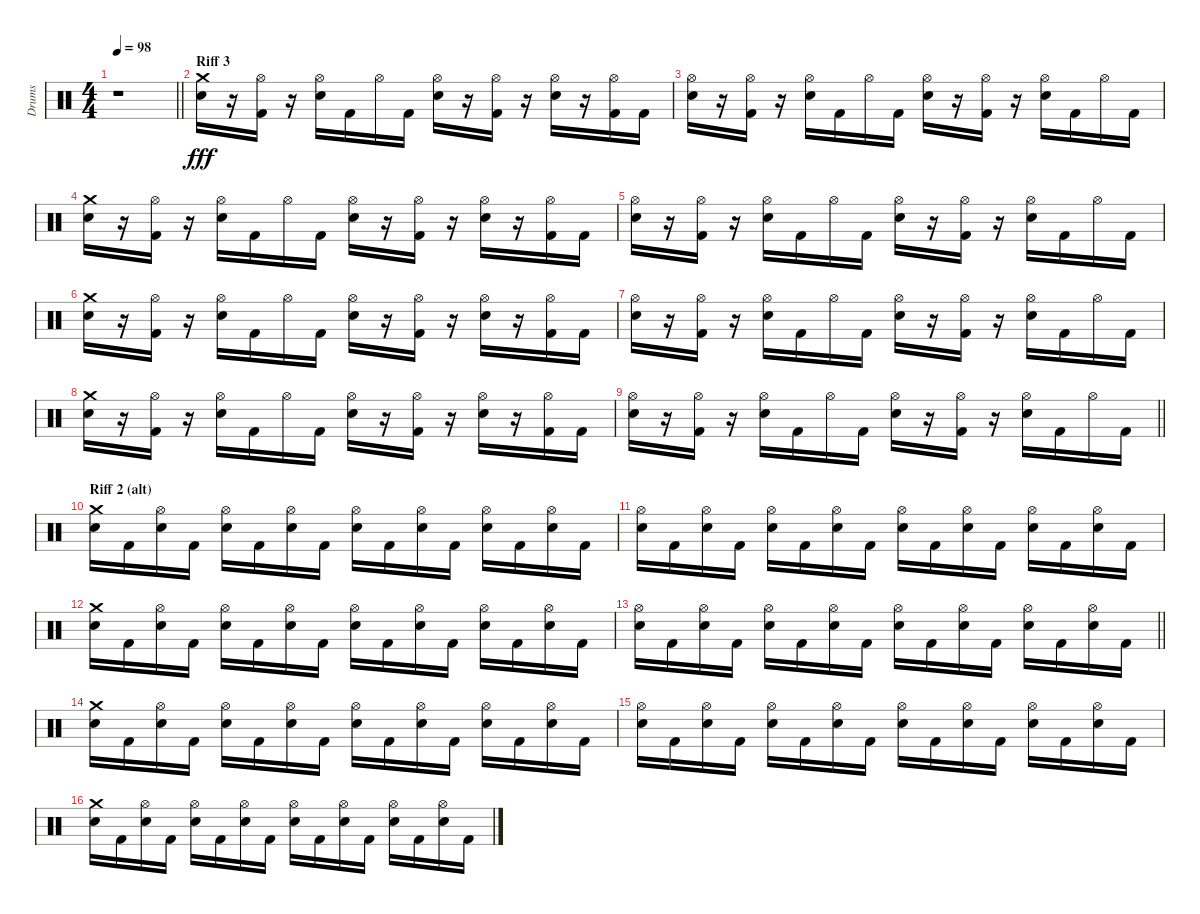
\track ("Drums" "Drums") {instrument percussion}
\staff {score}
\articulation defaults
\ts (4 4)
\tempo 98
\clef neutral
\barLineRight lightlight
\ks c
r.1{dy fff} |
\section ("" "Riff 3")
("Snare (hit) 2" "Crash medium (hit)").16 r.16 ("Kick (hit) 2" "Hi-Hat (open)").16 r.16 ("Snare (hit) 2" "Hi-Hat (open)").16 "Kick (hit) 2".16 "Hi-Hat (open)".16 "Kick (hit) 2".16 ("Snare (hit) 2" "Hi-Hat (open)").16 r.16 ("Kick (hit) 2" "Hi-Hat (open)").16 r.16 ("Snare (hit) 2" "Hi-Hat (open)").16 r.16 ("Kick (hit) 2" "Hi-Hat (open)").16 "Kick (hit) 2".16 |
("Snare (hit) 2" "Hi-Hat (open)").16 r.16 ("Kick (hit) 2" "Hi-Hat (open)").16 r.16 ("Snare (hit) 2" "Hi-Hat (open)").16 "Kick (hit) 2".16 "Hi-Hat (open)".16 "Kick (hit) 2".16 ("Snare (hit) 2" "Hi-Hat (open)").16 r.16 ("Kick (hit) 2" "Hi-Hat (open)").16 r.16 ("Snare (hit) 2" "Hi-Hat (open)").16 "Kick (hit) 2".16 "Hi-Hat (open)".16 "Kick (hit) 2".16 |
("Snare (hit) 2" "Crash medium (hit)").16 r.16 ("Kick (hit) 2" "Hi-Hat (open)").16 r.16 ("Snare (hit) 2" "Hi-Hat (open)").16 "Kick (hit) 2".16 "Hi-Hat (open)".16 "Kick (hit) 2".16 ("Snare (hit) 2" "Hi-Hat (open)").16 r.16 ("Kick (hit) 2" "Hi-Hat (open)").16 r.16 ("Snare (hit) 2" "Hi-Hat (open)").16 r.16 ("Kick (hit) 2" "Hi-Hat (open)").16 "Kick (hit) 2".16 |
("Snare (hit) 2" "Hi-Hat (open)").16 r.16 ("Kick (hit) 2" "Hi-Hat (open)").16 r.16 ("Snare (hit) 2" "Hi-Hat (open)").16 "Kick (hit) 2".16 "Hi-Hat (open)".16 "Kick (hit) 2".16 ("Snare (hit) 2" "Hi-Hat (open)").16 r.16 ("Kick (hit) 2" "Hi-Hat (open)").16 r.16 ("Snare (hit) 2" "Hi-Hat (open)").16 "Kick (hit) 2".16 "Hi-Hat (open)".16 "Kick (hit) 2".16 |
("Snare (hit) 2" "Crash medium (hit)").16 r.16 ("Kick (hit) 2" "Hi-Hat (open)").16 r.16 ("Snare (hit) 2" "Hi-Hat (open)").16 "Kick (hit) 2".16 "Hi-Hat (open)".16 "Kick (hit) 2".16 ("Snare (hit) 2" "Hi-Hat (open)").16 r.16 ("Kick (hit) 2" "Hi-Hat (open)").16 r.16 ("Snare (hit) 2" "Hi-Hat (open)").16 r.16 ("Kick (hit) 2" "Hi-Hat (open)").16 "Kick (hit) 2".16 |
("Snare (hit) 2" "Hi-Hat (open)").16 r.16 ("Kick (hit) 2" "Hi-Hat (open)").16 r.16 ("Snare (hit) 2" "Hi-Hat (open)").16 "Kick (hit) 2".16 "Hi-Hat (open)".16 "Kick (hit) 2".16 ("Snare (hit) 2" "Hi-Hat (open)").16 r.16 ("Kick (hit) 2" "Hi-Hat (open)").16 r.16 ("Snare (hit) 2" "Hi-Hat (open)").16 "Kick (hit) 2".16 "Hi-Hat (open)".16 "Kick (hit) 2".16 |
("Snare (hit) 2" "Crash medium (hit)").16 r.16 ("Kick (hit) 2" "Hi-Hat (open)").16 r.16 ("Snare (hit) 2" "Hi-Hat (open)").16 "Kick (hit) 2".16 "Hi-Hat (open)".16 "Kick (hit) 2".16 ("Snare (hit) 2" "Hi-Hat (open)").16 r.16 ("Kick (hit) 2" "Hi-Hat (open)").16 r.16 ("Snare (hit) 2" "Hi-Hat (open)").16 r.16 ("Kick (hit) 2" "Hi-Hat (open)").16 "Kick (hit) 2".16 |
\barLineRight lightlight
("Snare (hit) 2" "Hi-Hat (open)").16 r.16 ("Kick (hit) 2" "Hi-Hat (open)").16 r.16 ("Snare (hit) 2" "Hi-Hat (open)").16 "Kick (hit) 2".16 "Hi-Hat (open)".16 "Kick (hit) 2".16 ("Snare (hit) 2" "Hi-Hat (open)").16 r.16 ("Kick (hit) 2" "Hi-Hat (open)").16 r.16 ("Snare (hit) 2" "Hi-Hat (open)").16 "Kick (hit) 2".16 "Hi-Hat (open)".16 "Kick (hit) 2".16 |
\section ("" "Riff 2 (alt)")
("Snare (hit) 2" "Crash medium (hit)").16 "Kick (hit) 2".16 ("Snare (hit) 2" "Hi-Hat (open)").16 "Kick (hit) 2".16 ("Snare (hit) 2" "Hi-Hat (open)").16 "Kick (hit) 2".16 ("Snare (hit) 2" "Hi-Hat (open)").16 "Kick (hit) 2".16 ("Snare (hit) 2" "Hi-Hat (open)").16 "Kick (hit) 2".16 ("Snare (hit) 2" "Hi-Hat (open)").16 "Kick (hit) 2".16 ("Snare (hit) 2" "Hi-Hat (open)").16 "Kick (hit) 2".16 ("Snare (hit) 2" "Hi-Hat (open)").16 "Kick (hit) 2".16 |
("Snare (hit) 2" "Hi-Hat (open)").16 "Kick (hit) 2".16 ("Snare (hit) 2" "Hi-Hat (open)").16 "Kick (hit) 2".16 ("Snare (hit) 2" "Hi-Hat (open)").16 "Kick (hit) 2".16 ("Snare (hit) 2" "Hi-Hat (open)").16 "Kick (hit) 2".16 ("Snare (hit) 2" "Hi-Hat (open)").16 "Kick (hit) 2".16 ("Snare (hit) 2" "Hi-Hat (open)").16 "Kick (hit) 2".16 ("Snare (hit) 2" "Hi-Hat (open)").16 "Kick (hit) 2".16 ("Snare (hit) 2" "Hi-Hat (open)").16 "Kick (hit) 2".16 |
("Snare (hit) 2" "Crash medium (hit)").16 "Kick (hit) 2".16 ("Snare (hit) 2" "Hi-Hat (open)").16 "Kick (hit) 2".16 ("Snare (hit) 2" "Hi-Hat (open)").16 "Kick (hit) 2".16 ("Snare (hit) 2" "Hi-Hat (open)").16 "Kick (hit) 2".16 ("Snare (hit) 2" "Hi-Hat (open)").16 "Kick (hit) 2".16 ("Snare (hit) 2" "Hi-Hat (open)").16 "Kick (hit) 2".16 ("Snare (hit) 2" "Hi-Hat (open)").16 "Kick (hit) 2".16 ("Snare (hit) 2" "Hi-Hat (open)").16 "Kick (hit) 2".16 |
\barLineRight lightlight
("Snare (hit) 2" "Hi-Hat (open)").16 "Kick (hit) 2".16 ("Snare (hit) 2" "Hi-Hat (open)").16 "Kick (hit) 2".16 ("Snare (hit) 2" "Hi-Hat (open)").16 "Kick (hit) 2".16 ("Snare (hit) 2" "Hi-Hat (open)").16 "Kick (hit) 2".16 ("Snare (hit) 2" "Hi-Hat (open)").16 "Kick (hit) 2".16 ("Snare (hit) 2" "Hi-Hat (open)").16 "Kick (hit) 2".16 ("Snare (hit) 2" "Hi-Hat (open)").16 "Kick (hit) 2".16 ("Snare (hit) 2" "Hi-Hat (open)").16 "Kick (hit) 2".16 |
("Snare (hit) 2" "Crash medium (hit)").16 "Kick (hit) 2".16 ("Snare (hit) 2" "Hi-Hat (open)").16 "Kick (hit) 2".16 ("Snare (hit) 2" "Hi-Hat (open)").16 "Kick (hit) 2".16 ("Snare (hit) 2" "Hi-Hat (open)").16 "Kick (hit) 2".16 ("Snare (hit) 2" "Hi-Hat (open)").16 "Kick (hit) 2".16 ("Snare (hit) 2" "Hi-Hat (open)").16 "Kick (hit) 2".16 ("Snare (hit) 2" "Hi-Hat (open)").16 "Kick (hit) 2".16 ("Snare (hit) 2" "Hi-Hat (open)").16 "Kick (hit) 2".16 |
("Snare (hit) 2" "Hi-Hat (open)").16 "Kick (hit) 2".16 ("Snare (hit) 2" "Hi-Hat (open)").16 "Kick (hit) 2".16 ("Snare (hit) 2" "Hi-Hat (open)").16 "Kick (hit) 2".16 ("Snare (hit) 2" "Hi-Hat (open)").16 "Kick (hit) 2".16 ("Snare (hit) 2" "Hi-Hat (open)").16 "Kick (hit) 2".16 ("Snare (hit) 2" "Hi-Hat (open)").16 "Kick (hit) 2".16 ("Snare (hit) 2" "Hi-Hat (open)").16 "Kick (hit) 2".16 ("Snare (hit) 2" "Hi-Hat (open)").16 "Kick (hit) 2".16 |
("Snare (hit) 2" "Crash medium (hit)").16 "Kick (hit) 2".16 ("Snare (hit) 2" "Hi-Hat (open)").16 "Kick (hit) 2".16 ("Snare (hit) 2" "Hi-Hat (open)").16 "Kick (hit) 2".16 ("Snare (hit) 2" "Hi-Hat (open)").16 "Kick (hit) 2".16 ("Snare (hit) 2" "Hi-Hat (open)").16 "Kick (hit) 2".16 ("Snare (hit) 2" "Hi-Hat (open)").16 "Kick (hit) 2".16 ("Snare (hit) 2" "Hi-Hat (open)").16 "Kick (hit) 2".16 ("Snare (hit) 2" "Hi-Hat (open)").16 "Kick (hit) 2".16
